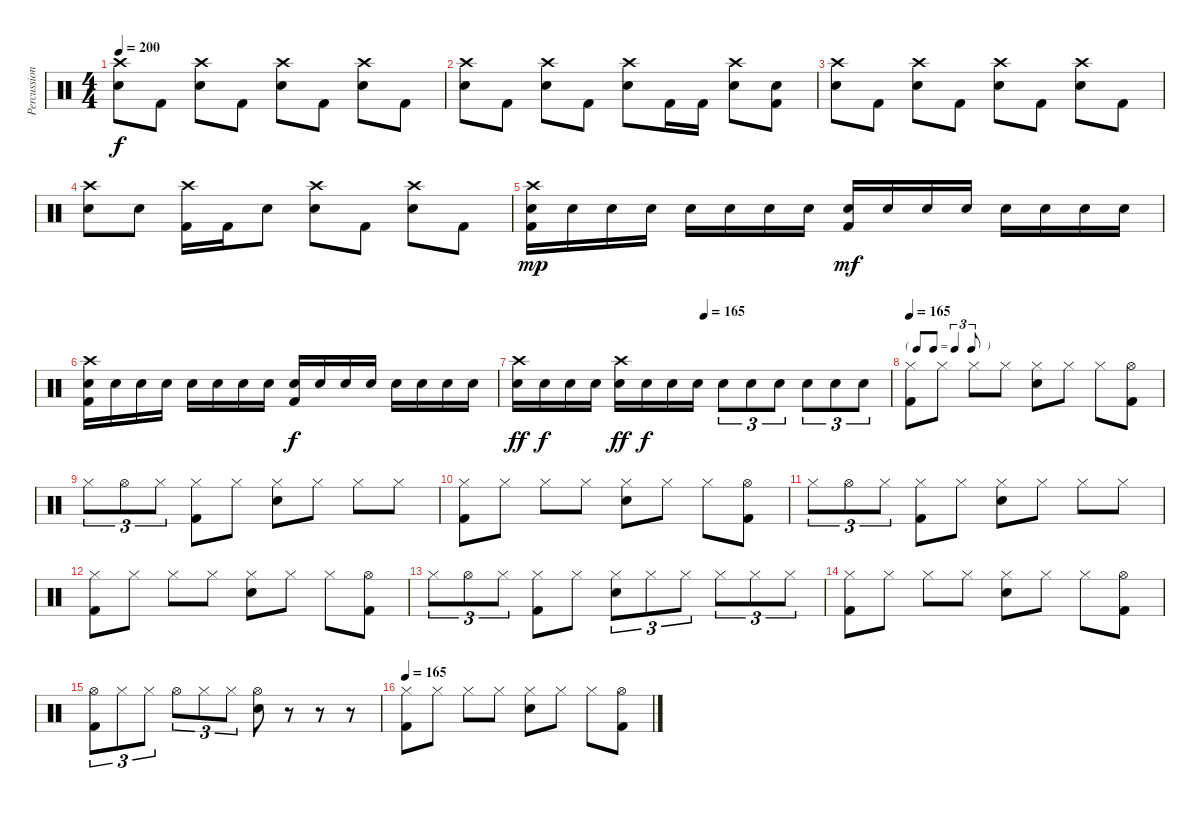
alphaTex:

\track ("Percussion" "Percussion") {instrument percussion}
\staff {score}
\articulation defaults
\ts (4 4)
\tempo 200
\clef neutral
\ks c
("Crash high (hit)" "Snare (hit) 2").8{dy f} "Kick (hit) 2".8 ("Crash high (hit)" "Snare (hit) 2").8 "Kick (hit) 2".8 ("Crash high (hit)" "Snare (hit) 2").8 "Kick (hit) 2".8 ("Crash high (hit)" "Snare (hit) 2").8 "Kick (hit) 2".8 |
("Crash high (hit)" "Snare (hit) 2").8 "Kick (hit) 2".8 ("Crash high (hit)" "Snare (hit) 2").8 "Kick (hit) 2".8 ("Crash high (hit)" "Snare (hit) 2").8 "Kick (hit) 2".16 "Kick (hit) 2".16 ("Crash high (hit)" "Snare (hit) 2").8 ("Snare (hit) 2" "Kick (hit) 2").8 |
("Crash high (hit)" "Snare (hit) 2").8 "Kick (hit) 2".8 ("Crash high (hit)" "Snare (hit) 2").8 "Kick (hit) 2".8 ("Crash high (hit)" "Snare (hit) 2").8 "Kick (hit) 2".8 ("Crash high (hit)" "Snare (hit) 2").8 "Kick (hit) 2".8 |
("Crash high (hit)" "Snare (hit) 2").8 "Snare (hit) 2".8 ("Crash high (hit)" "Kick (hit) 2").16 "Kick (hit) 2".16 "Snare (hit) 2".8 ("Crash high (hit)" "Snare (hit) 2").8 "Kick (hit) 2".8 ("Crash high (hit)" "Snare (hit) 2").8 "Kick (hit) 2".8 |
("Crash high (hit)" "Snare (hit) 2" "Kick (hit) 2").16{dy mp} "Snare (hit) 2".16 "Snare (hit) 2".16 "Snare (hit) 2".16 "Snare (hit) 2".16 "Snare (hit) 2".16 "Snare (hit) 2".16 "Snare (hit) 2".16 ("Snare (hit) 2" "Kick (hit) 2").16{dy mf} "Snare (hit) 2".16 "Snare (hit) 2".16 "Snare (hit) 2".16 "Snare (hit) 2".16 "Snare (hit) 2".16 "Snare (hit) 2".16 "Snare (hit) 2".16 |
("Crash high (hit)" "Snare (hit) 2" "Kick (hit) 2").16 "Snare (hit) 2".16 "Snare (hit) 2".16 "Snare (hit) 2".16 "Snare (hit) 2".16 "Snare (hit) 2".16 "Snare (hit) 2".16 "Snare (hit) 2".16 ("Snare (hit) 2" "Kick (hit) 2").16{dy f} "Snare (hit) 2".16 "Snare (hit) 2".16 "Snare (hit) 2".16 "Snare (hit) 2".16 "Snare (hit) 2".16 "Snare (hit) 2".16 "Snare (hit) 2".16 |
\tempo (165 0.5)
("Crash high (hit)" "Snare (hit) 2").16{dy ff} "Snare (hit) 2".16{dy f} "Snare (hit) 2".16 "Snare (hit) 2".16 ("Crash high (hit)" "Snare (hit) 2").16{dy ff} "Snare (hit) 2".16{dy f} "Snare (hit) 2".16 "Snare (hit) 2".16 "Snare (hit) 2".8{tu (3 2)} "Snare (hit) 2".8{tu (3 2)} "Snare (hit) 2".8{tu (3 2)} "Snare (hit) 2".8{tu (3 2)} "Snare (hit) 2".8{tu (3 2)} "Snare (hit) 2".8{tu (3 2)} |
\tf triplet8th
\tempo 165
("Hi-Hat (closed)" "Kick (hit) 2").8 "Hi-Hat (closed)".8 "Hi-Hat (closed)".8 "Hi-Hat (closed)".8 ("Hi-Hat (closed)" "Snare (hit) 2").8 "Hi-Hat (closed)".8 "Hi-Hat (closed)".8 ("Hi-Hat (open)" "Kick (hit) 2").8 |
"Hi-Hat (closed)".8{tu (3 2)} "Hi-Hat (open)".8{tu (3 2)} "Hi-Hat (closed)".8{tu (3 2)} ("Hi-Hat (closed)" "Kick (hit) 2").8 "Hi-Hat (closed)".8 ("Hi-Hat (closed)" "Snare (hit) 2").8 "Hi-Hat (closed)".8 "Hi-Hat (closed)".8 "Hi-Hat (closed)".8 |
("Hi-Hat (closed)" "Kick (hit) 2").8 "Hi-Hat (closed)".8 "Hi-Hat (closed)".8 "Hi-Hat (closed)".8 ("Hi-Hat (closed)" "Snare (hit) 2").8 "Hi-Hat (closed)".8 "Hi-Hat (closed)".8 ("Hi-Hat (open)" "Kick (hit) 2").8 |
"Hi-Hat (closed)".8{tu (3 2)} "Hi-Hat (open)".8{tu (3 2)} "Hi-Hat (closed)".8{tu (3 2)} ("Hi-Hat (closed)" "Kick (hit) 2").8 "Hi-Hat (closed)".8 ("Hi-Hat (closed)" "Snare (hit) 2").8 "Hi-Hat (closed)".8 "Hi-Hat (closed)".8 "Hi-Hat (closed)".8 |
("Hi-Hat (closed)" "Kick (hit) 2").8 "Hi-Hat (closed)".8 "Hi-Hat (closed)".8 "Hi-Hat (closed)".8 ("Hi-Hat (closed)" "Snare (hit) 2").8 "Hi-Hat (closed)".8 "Hi-Hat (closed)".8 ("Hi-Hat (open)" "Kick (hit) 2").8 |
"Hi-Hat (closed)".8{tu (3 2)} "Hi-Hat (open)".8{tu (3 2)} "Hi-Hat (closed)".8{tu (3 2)} ("Hi-Hat (closed)" "Kick (hit) 2").8 "Hi-Hat (closed)".8 ("Hi-Hat (closed)" "Snare (hit) 2").8{tu (3 2)} "Hi-Hat (closed)".8{tu (3 2)} "Hi-Hat (closed)".8{tu (3 2)} "Hi-Hat (closed)".8{tu (3 2)} "Hi-Hat (closed)".8{tu (3 2)} "Hi-Hat (closed)".8{tu (3 2)} |
("Hi-Hat (closed)" "Kick (hit) 2").8 "Hi-Hat (closed)".8 "Hi-Hat (closed)".8 "Hi-Hat (closed)".8 ("Hi-Hat (closed)" "Snare (hit) 2").8 "Hi-Hat (closed)".8 "Hi-Hat (closed)".8 ("Hi-Hat (open)" "Kick (hit) 2").8 |
("Hi-Hat (open)" "Kick (hit) 2").8{tu (3 2)} "Hi-Hat (closed)".8{tu (3 2)} "Hi-Hat (closed)".8{tu (3 2)} "Hi-Hat (open)".8{tu (3 2)} "Hi-Hat (closed)".8{tu (3 2)} "Hi-Hat (closed)".8{tu (3 2)} ("Hi-Hat (open)" "Snare (hit) 2").8 r.8 r.8 r.8 |
\tempo 165
("Hi-Hat (closed)" "Kick (hit) 2").8 "Hi-Hat (closed)".8 "Hi-Hat (closed)".8 "Hi-Hat (closed)".8 ("Hi-Hat (closed)" "Snare (hit) 2").8 "Hi-Hat (closed)".8 "Hi-Hat (closed)".8 ("Hi-Hat (open)" "Kick (hit) 2").8
